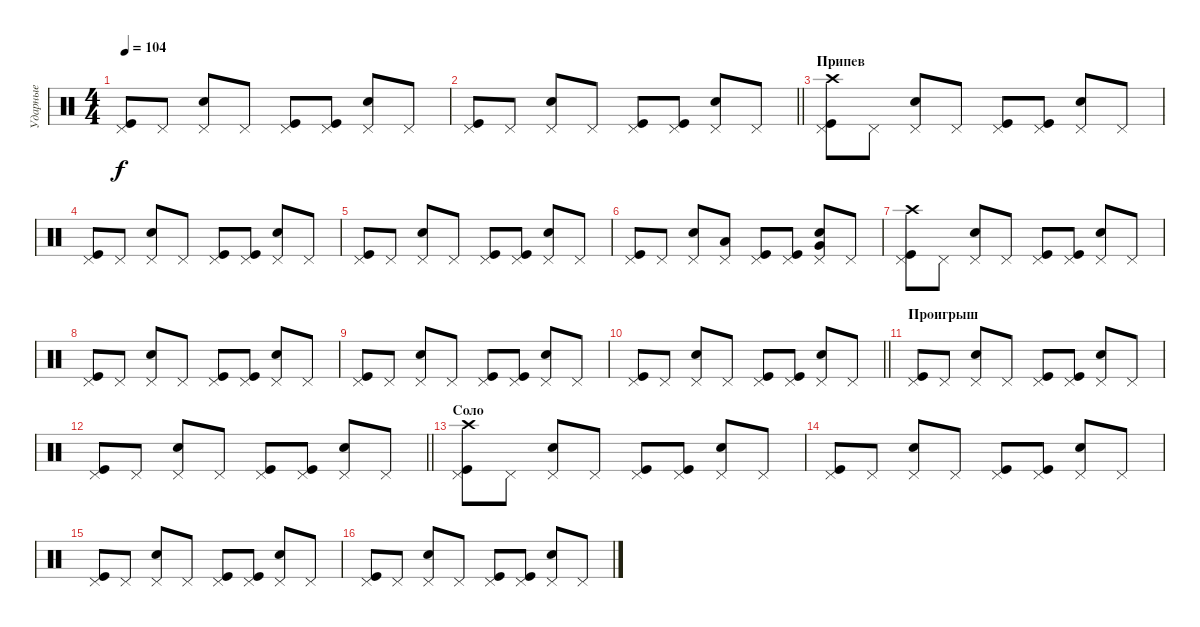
\track ("Ударные" "Ударные") {instrument percussion}
\staff {score}
\articulation defaults
\ts (4 4)
\tempo 104
\clef neutral
\ks c
("Pedal Hi-Hat (hit)" "Kick (hit)").8{dy f} "Pedal Hi-Hat (hit)".8 ("Pedal Hi-Hat (hit)" "Snare (hit) 2").8 "Pedal Hi-Hat (hit)".8 ("Pedal Hi-Hat (hit)" "Kick (hit)").8 ("Pedal Hi-Hat (hit)" "Kick (hit)").8 ("Pedal Hi-Hat (hit)" "Snare (hit) 2").8 "Pedal Hi-Hat (hit)".8 |
\barLineRight lightlight
("Pedal Hi-Hat (hit)" "Kick (hit)").8 "Pedal Hi-Hat (hit)".8 ("Pedal Hi-Hat (hit)" "Snare (hit) 2").8 "Pedal Hi-Hat (hit)".8 ("Pedal Hi-Hat (hit)" "Kick (hit)").8 ("Pedal Hi-Hat (hit)" "Kick (hit)").8 ("Pedal Hi-Hat (hit)" "Snare (hit) 2").8 "Pedal Hi-Hat (hit)".8 |
\section ("" "Припев")
("Pedal Hi-Hat (hit)" "Kick (hit)" "Crash high (hit)").8 "Pedal Hi-Hat (hit)".8 ("Pedal Hi-Hat (hit)" "Snare (hit) 2").8 "Pedal Hi-Hat (hit)".8 ("Pedal Hi-Hat (hit)" "Kick (hit)").8 ("Pedal Hi-Hat (hit)" "Kick (hit)").8 ("Pedal Hi-Hat (hit)" "Snare (hit) 2").8 "Pedal Hi-Hat (hit)".8 |
("Pedal Hi-Hat (hit)" "Kick (hit)").8 "Pedal Hi-Hat (hit)".8 ("Pedal Hi-Hat (hit)" "Snare (hit) 2").8 "Pedal Hi-Hat (hit)".8 ("Pedal Hi-Hat (hit)" "Kick (hit)").8 ("Pedal Hi-Hat (hit)" "Kick (hit)").8 ("Pedal Hi-Hat (hit)" "Snare (hit) 2").8 "Pedal Hi-Hat (hit)".8 |
("Pedal Hi-Hat (hit)" "Kick (hit)").8 "Pedal Hi-Hat (hit)".8 ("Pedal Hi-Hat (hit)" "Snare (hit) 2").8 "Pedal Hi-Hat (hit)".8 ("Pedal Hi-Hat (hit)" "Kick (hit)").8 ("Pedal Hi-Hat (hit)" "Kick (hit)").8 ("Pedal Hi-Hat (hit)" "Snare (hit) 2").8 "Pedal Hi-Hat (hit)".8 |
("Pedal Hi-Hat (hit)" "Kick (hit)").8 "Pedal Hi-Hat (hit)".8 ("Pedal Hi-Hat (hit)" "Snare (hit) 2").8 ("Pedal Hi-Hat (hit)" "Low Floor Tom (hit)").8 ("Pedal Hi-Hat (hit)" "Kick (hit)").8 ("Pedal Hi-Hat (hit)" "Kick (hit)").8 ("Pedal Hi-Hat (hit)" "Snare (hit) 2" "Very Low Tom (hit)").8 "Pedal Hi-Hat (hit)".8 |
("Pedal Hi-Hat (hit)" "Kick (hit)" "Crash high (hit)").8 "Pedal Hi-Hat (hit)".8 ("Pedal Hi-Hat (hit)" "Snare (hit) 2").8 "Pedal Hi-Hat (hit)".8 ("Pedal Hi-Hat (hit)" "Kick (hit)").8 ("Pedal Hi-Hat (hit)" "Kick (hit)").8 ("Pedal Hi-Hat (hit)" "Snare (hit) 2").8 "Pedal Hi-Hat (hit)".8 |
("Pedal Hi-Hat (hit)" "Kick (hit)").8 "Pedal Hi-Hat (hit)".8 ("Pedal Hi-Hat (hit)" "Snare (hit) 2").8 "Pedal Hi-Hat (hit)".8 ("Pedal Hi-Hat (hit)" "Kick (hit)").8 ("Pedal Hi-Hat (hit)" "Kick (hit)").8 ("Pedal Hi-Hat (hit)" "Snare (hit) 2").8 "Pedal Hi-Hat (hit)".8 |
("Pedal Hi-Hat (hit)" "Kick (hit)").8 "Pedal Hi-Hat (hit)".8 ("Pedal Hi-Hat (hit)" "Snare (hit) 2").8 "Pedal Hi-Hat (hit)".8 ("Pedal Hi-Hat (hit)" "Kick (hit)").8 ("Pedal Hi-Hat (hit)" "Kick (hit)").8 ("Pedal Hi-Hat (hit)" "Snare (hit) 2").8 "Pedal Hi-Hat (hit)".8 |
\barLineRight lightlight
("Pedal Hi-Hat (hit)" "Kick (hit)").8 "Pedal Hi-Hat (hit)".8 ("Pedal Hi-Hat (hit)" "Snare (hit) 2").8 "Pedal Hi-Hat (hit)".8 ("Pedal Hi-Hat (hit)" "Kick (hit)").8 ("Pedal Hi-Hat (hit)" "Kick (hit)").8 ("Pedal Hi-Hat (hit)" "Snare (hit) 2").8 "Pedal Hi-Hat (hit)".8 |
\section ("" "Проигрыш")
("Pedal Hi-Hat (hit)" "Kick (hit)").8 "Pedal Hi-Hat (hit)".8 ("Pedal Hi-Hat (hit)" "Snare (hit) 2").8 "Pedal Hi-Hat (hit)".8 ("Pedal Hi-Hat (hit)" "Kick (hit)").8 ("Pedal Hi-Hat (hit)" "Kick (hit)").8 ("Pedal Hi-Hat (hit)" "Snare (hit) 2").8 "Pedal Hi-Hat (hit)".8 |
\barLineRight lightlight
("Pedal Hi-Hat (hit)" "Kick (hit)").8 "Pedal Hi-Hat (hit)".8 ("Pedal Hi-Hat (hit)" "Snare (hit) 2").8 "Pedal Hi-Hat (hit)".8 ("Pedal Hi-Hat (hit)" "Kick (hit)").8 ("Pedal Hi-Hat (hit)" "Kick (hit)").8 ("Pedal Hi-Hat (hit)" "Snare (hit) 2").8 "Pedal Hi-Hat (hit)".8 |
\section ("" "Соло")
("Pedal Hi-Hat (hit)" "Kick (hit)" "Crash high (hit)").8 "Pedal Hi-Hat (hit)".8 ("Pedal Hi-Hat (hit)" "Snare (hit) 2").8 "Pedal Hi-Hat (hit)".8 ("Pedal Hi-Hat (hit)" "Kick (hit)").8 ("Pedal Hi-Hat (hit)" "Kick (hit)").8 ("Pedal Hi-Hat (hit)" "Snare (hit) 2").8 "Pedal Hi-Hat (hit)".8 |
("Pedal Hi-Hat (hit)" "Kick (hit)").8 "Pedal Hi-Hat (hit)".8 ("Pedal Hi-Hat (hit)" "Snare (hit) 2").8 "Pedal Hi-Hat (hit)".8 ("Pedal Hi-Hat (hit)" "Kick (hit)").8 ("Pedal Hi-Hat (hit)" "Kick (hit)").8 ("Pedal Hi-Hat (hit)" "Snare (hit) 2").8 "Pedal Hi-Hat (hit)".8 |
("Pedal Hi-Hat (hit)" "Kick (hit)").8 "Pedal Hi-Hat (hit)".8 ("Pedal Hi-Hat (hit)" "Snare (hit) 2").8 "Pedal Hi-Hat (hit)".8 ("Pedal Hi-Hat (hit)" "Kick (hit)").8 ("Pedal Hi-Hat (hit)" "Kick (hit)").8 ("Pedal Hi-Hat (hit)" "Snare (hit) 2").8 "Pedal Hi-Hat (hit)".8 |
("Pedal Hi-Hat (hit)" "Kick (hit)").8 "Pedal Hi-Hat (hit)".8 ("Pedal Hi-Hat (hit)" "Snare (hit) 2").8 "Pedal Hi-Hat (hit)".8 ("Pedal Hi-Hat (hit)" "Kick (hit)").8 ("Pedal Hi-Hat (hit)" "Kick (hit)").8 ("Pedal Hi-Hat (hit)" "Snare (hit) 2").8 "Pedal Hi-Hat (hit)".8
